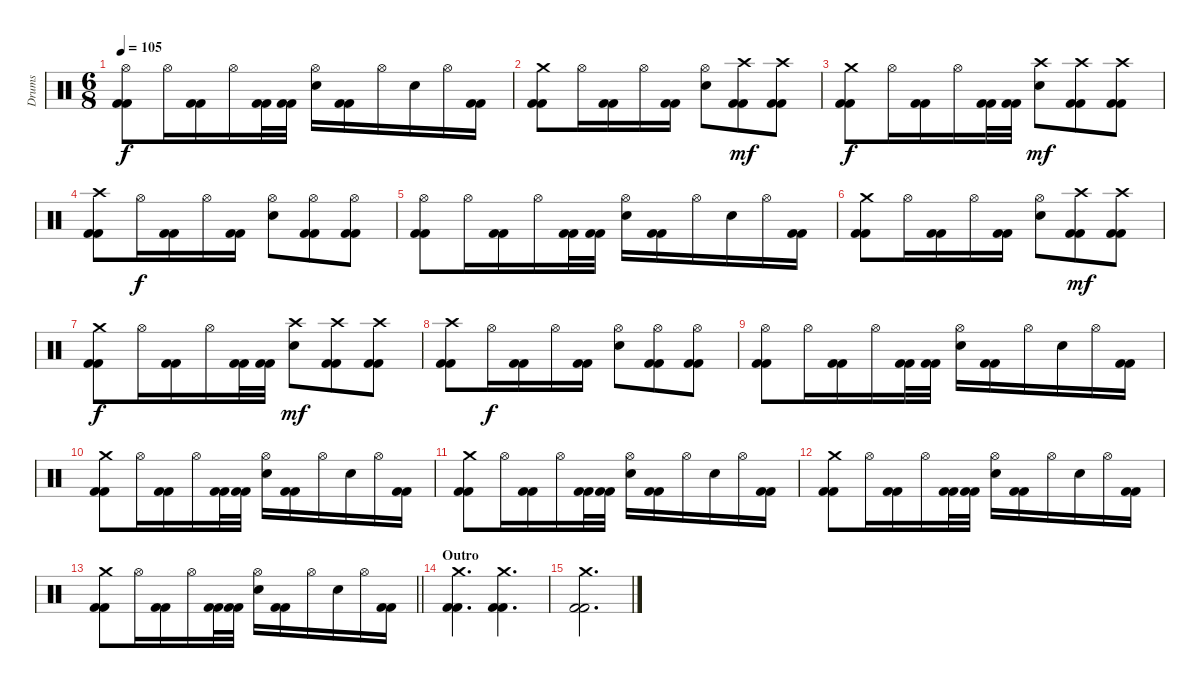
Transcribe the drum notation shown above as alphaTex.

\track ("Drums" "Drums") {instrument percussion}
\staff {score}
\articulation defaults
\ts (6 8)
\tempo 105
\clef neutral
\ks c
("Hi-Hat (open)" "Kick (hit) 2" "Kick (hit) 2").8{dy f} "Hi-Hat (open)".16 ("Kick (hit) 2" "Kick (hit) 2").16 "Hi-Hat (open)".16 ("Kick (hit) 2" "Kick (hit) 2").32 ("Kick (hit) 2" "Kick (hit) 2").32 ("Hi-Hat (open)" "Electric Snare (hit)").16 ("Kick (hit) 2" "Kick (hit) 2").16 "Hi-Hat (open)".16 "Electric Snare (hit)".16 "Hi-Hat (open)".16 ("Kick (hit) 2" "Kick (hit) 2").16 |
("Crash medium (hit)" "Kick (hit) 2" "Kick (hit) 2").8 "Hi-Hat (open)".16 ("Kick (hit) 2" "Kick (hit) 2").16 "Hi-Hat (open)".16 ("Kick (hit) 2" "Kick (hit) 2").16 ("Hi-Hat (open)" "Electric Snare (hit)").8 ("Crash high (hit)" "Kick (hit) 2" "Kick (hit) 2").8{dy mf} ("Crash high (hit)" "Kick (hit) 2" "Kick (hit) 2").8 |
("Crash medium (hit)" "Kick (hit) 2" "Kick (hit) 2").8{dy f} "Hi-Hat (open)".16 ("Kick (hit) 2" "Kick (hit) 2").16 "Hi-Hat (open)".16 ("Kick (hit) 2" "Kick (hit) 2").32 ("Kick (hit) 2" "Kick (hit) 2").32 ("Crash high (hit)" "Electric Snare (hit)").8{dy mf} ("Crash high (hit)" "Kick (hit) 2" "Kick (hit) 2").8 ("Crash high (hit)" "Kick (hit) 2" "Kick (hit) 2").8 |
("Crash high (hit)" "Kick (hit) 2" "Kick (hit) 2").8 "Hi-Hat (open)".16{dy f} ("Kick (hit) 2" "Kick (hit) 2").16 "Hi-Hat (open)".16 ("Kick (hit) 2" "Kick (hit) 2").16 ("Hi-Hat (open)" "Electric Snare (hit)").8 ("Hi-Hat (open)" "Kick (hit) 2" "Kick (hit) 2").8 ("Hi-Hat (open)" "Kick (hit) 2" "Kick (hit) 2").8 |
("Hi-Hat (open)" "Kick (hit) 2" "Kick (hit) 2").8 "Hi-Hat (open)".16 ("Kick (hit) 2" "Kick (hit) 2").16 "Hi-Hat (open)".16 ("Kick (hit) 2" "Kick (hit) 2").32 ("Kick (hit) 2" "Kick (hit) 2").32 ("Hi-Hat (open)" "Electric Snare (hit)").16 ("Kick (hit) 2" "Kick (hit) 2").16 "Hi-Hat (open)".16 "Electric Snare (hit)".16 "Hi-Hat (open)".16 ("Kick (hit) 2" "Kick (hit) 2").16 |
("Crash medium (hit)" "Kick (hit) 2" "Kick (hit) 2").8 "Hi-Hat (open)".16 ("Kick (hit) 2" "Kick (hit) 2").16 "Hi-Hat (open)".16 ("Kick (hit) 2" "Kick (hit) 2").16 ("Hi-Hat (open)" "Electric Snare (hit)").8 ("Crash high (hit)" "Kick (hit) 2" "Kick (hit) 2").8{dy mf} ("Crash high (hit)" "Kick (hit) 2" "Kick (hit) 2").8 |
("Crash medium (hit)" "Kick (hit) 2" "Kick (hit) 2").8{dy f} "Hi-Hat (open)".16 ("Kick (hit) 2" "Kick (hit) 2").16 "Hi-Hat (open)".16 ("Kick (hit) 2" "Kick (hit) 2").32 ("Kick (hit) 2" "Kick (hit) 2").32 ("Crash high (hit)" "Electric Snare (hit)").8{dy mf} ("Crash high (hit)" "Kick (hit) 2" "Kick (hit) 2").8 ("Crash high (hit)" "Kick (hit) 2" "Kick (hit) 2").8 |
("Crash high (hit)" "Kick (hit) 2" "Kick (hit) 2").8 "Hi-Hat (open)".16{dy f} ("Kick (hit) 2" "Kick (hit) 2").16 "Hi-Hat (open)".16 ("Kick (hit) 2" "Kick (hit) 2").16 ("Hi-Hat (open)" "Electric Snare (hit)").8 ("Hi-Hat (open)" "Kick (hit) 2" "Kick (hit) 2").8 ("Hi-Hat (open)" "Kick (hit) 2" "Kick (hit) 2").8 |
("Hi-Hat (open)" "Kick (hit) 2" "Kick (hit) 2").8 "Hi-Hat (open)".16 ("Kick (hit) 2" "Kick (hit) 2").16 "Hi-Hat (open)".16 ("Kick (hit) 2" "Kick (hit) 2").32 ("Kick (hit) 2" "Kick (hit) 2").32 ("Hi-Hat (open)" "Electric Snare (hit)").16 ("Kick (hit) 2" "Kick (hit) 2").16 "Hi-Hat (open)".16 "Electric Snare (hit)".16 "Hi-Hat (open)".16 ("Kick (hit) 2" "Kick (hit) 2").16 |
("Crash medium (hit)" "Kick (hit) 2" "Kick (hit) 2").8 "Hi-Hat (open)".16 ("Kick (hit) 2" "Kick (hit) 2").16 "Hi-Hat (open)".16 ("Kick (hit) 2" "Kick (hit) 2").32 ("Kick (hit) 2" "Kick (hit) 2").32 ("Hi-Hat (open)" "Electric Snare (hit)").16 ("Kick (hit) 2" "Kick (hit) 2").16 "Hi-Hat (open)".16 "Electric Snare (hit)".16 "Hi-Hat (open)".16 ("Kick (hit) 2" "Kick (hit) 2").16 |
("Crash medium (hit)" "Kick (hit) 2" "Kick (hit) 2").8 "Hi-Hat (open)".16 ("Kick (hit) 2" "Kick (hit) 2").16 "Hi-Hat (open)".16 ("Kick (hit) 2" "Kick (hit) 2").32 ("Kick (hit) 2" "Kick (hit) 2").32 ("Hi-Hat (open)" "Electric Snare (hit)").16 ("Kick (hit) 2" "Kick (hit) 2").16 "Hi-Hat (open)".16 "Electric Snare (hit)".16 "Hi-Hat (open)".16 ("Kick (hit) 2" "Kick (hit) 2").16 |
("Crash medium (hit)" "Kick (hit) 2" "Kick (hit) 2").8 "Hi-Hat (open)".16 ("Kick (hit) 2" "Kick (hit) 2").16 "Hi-Hat (open)".16 ("Kick (hit) 2" "Kick (hit) 2").32 ("Kick (hit) 2" "Kick (hit) 2").32 ("Hi-Hat (open)" "Electric Snare (hit)").16 ("Kick (hit) 2" "Kick (hit) 2").16 "Hi-Hat (open)".16 "Electric Snare (hit)".16 "Hi-Hat (open)".16 ("Kick (hit) 2" "Kick (hit) 2").16 |
\barLineRight lightlight
("Crash medium (hit)" "Kick (hit) 2" "Kick (hit) 2").8 "Hi-Hat (open)".16 ("Kick (hit) 2" "Kick (hit) 2").16 "Hi-Hat (open)".16 ("Kick (hit) 2" "Kick (hit) 2").32 ("Kick (hit) 2" "Kick (hit) 2").32 ("Hi-Hat (open)" "Electric Snare (hit)").16 ("Kick (hit) 2" "Kick (hit) 2").16 "Hi-Hat (open)".16 "Electric Snare (hit)".16 "Hi-Hat (open)".16 ("Kick (hit) 2" "Kick (hit) 2").16 |
\section ("" "Outro")
("Crash medium (hit)" "Kick (hit) 2" "Kick (hit) 2").4{d} ("Crash medium (hit)" "Kick (hit) 2" "Kick (hit) 2").4{d} |
("Crash medium (hit)" "Kick (hit) 2" "Kick (hit) 2").2{d}
